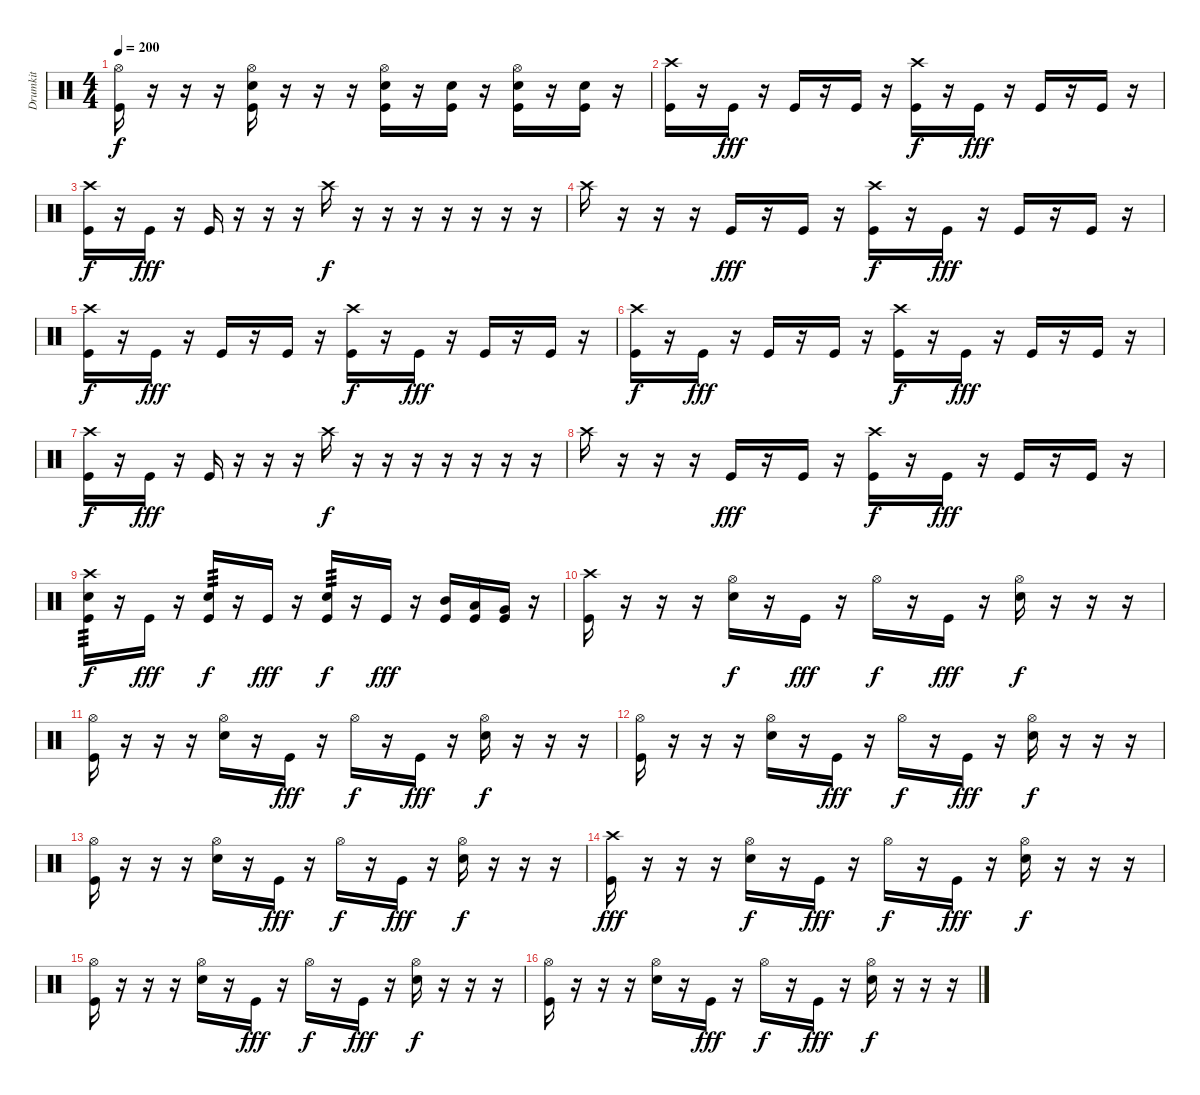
\track ("Drumkit" "Drumkit") {instrument percussion}
\staff {score}
\articulation defaults
\ts (4 4)
\tempo 200
\clef neutral
\ks c
("Hi-Hat (open)" "Kick (hit)").16{dy f} r.16 r.16 r.16 ("Hi-Hat (open)" "Snare (hit) 2" "Kick (hit)").16 r.16 r.16 r.16 ("Hi-Hat (open)" "Snare (hit) 2" "Kick (hit)").16 r.16 ("Snare (hit) 2" "Kick (hit)").16 r.16 ("Hi-Hat (open)" "Snare (hit) 2" "Kick (hit)").16 r.16 ("Snare (hit) 2" "Kick (hit)").16 r.16 |
("Crash high (hit)" "Kick (hit)").16 r.16 "Kick (hit)".16{dy fff} r.16 "Kick (hit)".16 r.16 "Kick (hit)".16 r.16 ("Crash high (hit)" "Kick (hit)").16{dy f} r.16 "Kick (hit)".16{dy fff} r.16 "Kick (hit)".16 r.16 "Kick (hit)".16 r.16 |
("Crash high (hit)" "Kick (hit)").16{dy f} r.16 "Kick (hit)".16{dy fff} r.16 "Kick (hit)".16 r.16 r.16 r.16 "Crash high (hit)".16{dy f} r.16 r.16 r.16 r.16 r.16 r.16 r.16 |
"Crash high (hit)".16 r.16 r.16 r.16 "Kick (hit)".16{dy fff} r.16 "Kick (hit)".16 r.16 ("Crash high (hit)" "Kick (hit)").16{dy f} r.16 "Kick (hit)".16{dy fff} r.16 "Kick (hit)".16 r.16 "Kick (hit)".16 r.16 |
("Crash high (hit)" "Kick (hit)").16{dy f} r.16 "Kick (hit)".16{dy fff} r.16 "Kick (hit)".16 r.16 "Kick (hit)".16 r.16 ("Crash high (hit)" "Kick (hit)").16{dy f} r.16 "Kick (hit)".16{dy fff} r.16 "Kick (hit)".16 r.16 "Kick (hit)".16 r.16 |
("Crash high (hit)" "Kick (hit)").16{dy f} r.16 "Kick (hit)".16{dy fff} r.16 "Kick (hit)".16 r.16 "Kick (hit)".16 r.16 ("Crash high (hit)" "Kick (hit)").16{dy f} r.16 "Kick (hit)".16{dy fff} r.16 "Kick (hit)".16 r.16 "Kick (hit)".16 r.16 |
("Crash high (hit)" "Kick (hit)").16{dy f} r.16 "Kick (hit)".16{dy fff} r.16 "Kick (hit)".16 r.16 r.16 r.16 "Crash high (hit)".16{dy f} r.16 r.16 r.16 r.16 r.16 r.16 r.16 |
"Crash high (hit)".16 r.16 r.16 r.16 "Kick (hit)".16{dy fff} r.16 "Kick (hit)".16 r.16 ("Crash high (hit)" "Kick (hit)").16{dy f} r.16 "Kick (hit)".16{dy fff} r.16 "Kick (hit)".16 r.16 "Kick (hit)".16 r.16 |
("Crash high (hit)" "Snare (hit) 2" "Kick (hit)").16{tp 3 dy f} r.16 "Kick (hit)".16{dy fff} r.16 ("Snare (hit) 2" "Kick (hit)").16{tp 3 dy f} r.16 "Kick (hit)".16{dy fff} r.16 ("Snare (hit) 2" "Kick (hit)").16{tp 3 dy f} r.16 "Kick (hit)".16{dy fff} r.16 ("Mid Tom (hit)" "Kick (hit)").16 ("Low Tom (hit)" "Kick (hit)").16 ("Kick (hit)" "Very Low Tom (hit)").16 r.16 |
("Crash high (hit)" "Kick (hit)").16 r.16 r.16 r.16 ("Hi-Hat (open)" "Snare (hit) 2").16{dy f} r.16 "Kick (hit)".16{dy fff} r.16 "Hi-Hat (open)".16{dy f} r.16 "Kick (hit)".16{dy fff} r.16 ("Hi-Hat (open)" "Snare (hit) 2").16{dy f} r.16 r.16 r.16 |
("Hi-Hat (open)" "Kick (hit)").16 r.16 r.16 r.16 ("Hi-Hat (open)" "Snare (hit) 2").16 r.16 "Kick (hit)".16{dy fff} r.16 "Hi-Hat (open)".16{dy f} r.16 "Kick (hit)".16{dy fff} r.16 ("Hi-Hat (open)" "Snare (hit) 2").16{dy f} r.16 r.16 r.16 |
("Hi-Hat (open)" "Kick (hit)").16 r.16 r.16 r.16 ("Hi-Hat (open)" "Snare (hit) 2").16 r.16 "Kick (hit)".16{dy fff} r.16 "Hi-Hat (open)".16{dy f} r.16 "Kick (hit)".16{dy fff} r.16 ("Hi-Hat (open)" "Snare (hit) 2").16{dy f} r.16 r.16 r.16 |
("Hi-Hat (open)" "Kick (hit)").16 r.16 r.16 r.16 ("Hi-Hat (open)" "Snare (hit) 2").16 r.16 "Kick (hit)".16{dy fff} r.16 "Hi-Hat (open)".16{dy f} r.16 "Kick (hit)".16{dy fff} r.16 ("Hi-Hat (open)" "Snare (hit) 2").16{dy f} r.16 r.16 r.16 |
("Crash high (hit)" "Kick (hit)").16{dy fff} r.16 r.16 r.16 ("Hi-Hat (open)" "Snare (hit) 2").16{dy f} r.16 "Kick (hit)".16{dy fff} r.16 "Hi-Hat (open)".16{dy f} r.16 "Kick (hit)".16{dy fff} r.16 ("Hi-Hat (open)" "Snare (hit) 2").16{dy f} r.16 r.16 r.16 |
("Hi-Hat (open)" "Kick (hit)").16 r.16 r.16 r.16 ("Hi-Hat (open)" "Snare (hit) 2").16 r.16 "Kick (hit)".16{dy fff} r.16 "Hi-Hat (open)".16{dy f} r.16 "Kick (hit)".16{dy fff} r.16 ("Hi-Hat (open)" "Snare (hit) 2").16{dy f} r.16 r.16 r.16 |
("Hi-Hat (open)" "Kick (hit)").16 r.16 r.16 r.16 ("Hi-Hat (open)" "Snare (hit) 2").16 r.16 "Kick (hit)".16{dy fff} r.16 "Hi-Hat (open)".16{dy f} r.16 "Kick (hit)".16{dy fff} r.16 ("Hi-Hat (open)" "Snare (hit) 2").16{dy f} r.16 r.16 r.16
